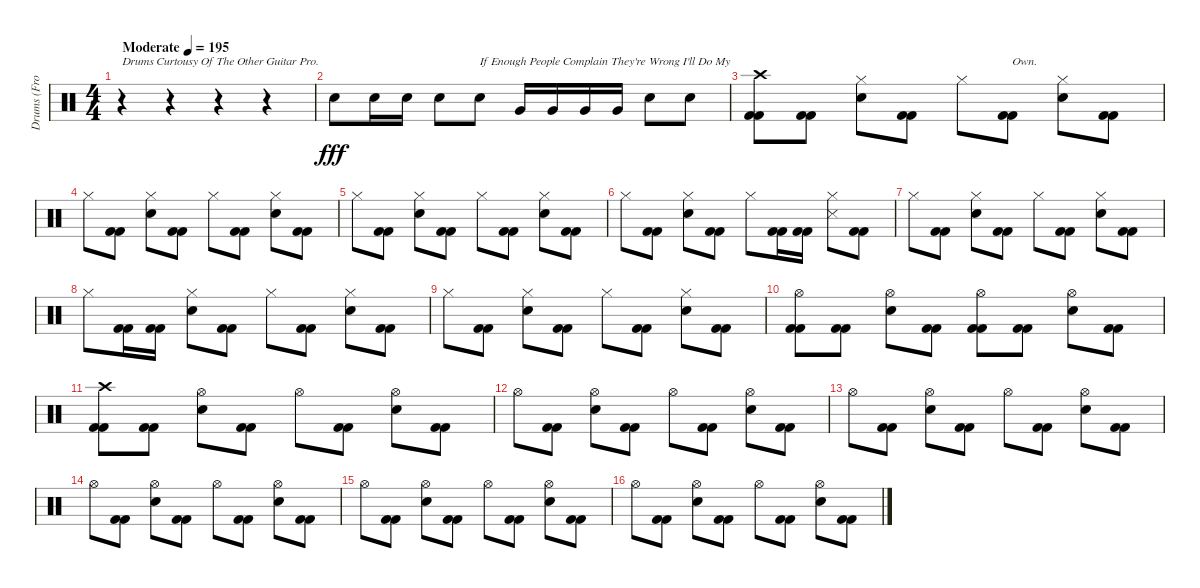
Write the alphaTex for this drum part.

\track ("Drums (From Other GP)" "Drums (Fro") {instrument percussion}
\staff {score}
\articulation defaults
\ts (4 4)
\tempo (195 "Moderate")
\clef neutral
\ks c
r.4{txt "Drums Curtousy Of The Other Guitar Pro." dy fff} r.4 r.4 r.4 |
"Electric Snare (hit)".8 "Electric Snare (hit)".16 "Electric Snare (hit)".16 "Electric Snare (hit)".8 "Electric Snare (hit)".8{txt "If Enough People Complain They're Wrong I'll Do My"} "Very Low Tom (hit)".16 "Very Low Tom (hit)".16 "Very Low Tom (hit)".16 "Very Low Tom (hit)".16 "Electric Snare (hit)".8 "Electric Snare (hit)".8 |
("Crash high (hit)" "Kick (hit) 2" "Kick (hit) 2").8 ("Kick (hit) 2" "Kick (hit) 2").8 ("Hi-Hat (closed)" "Electric Snare (hit)").8 ("Kick (hit) 2" "Kick (hit) 2").8 "Hi-Hat (closed)".8 ("Kick (hit) 2" "Kick (hit) 2").8{txt "Own."} ("Hi-Hat (closed)" "Electric Snare (hit)").8 ("Kick (hit) 2" "Kick (hit) 2").8 |
"Hi-Hat (closed)".8 ("Kick (hit) 2" "Kick (hit) 2").8 ("Hi-Hat (closed)" "Electric Snare (hit)").8 ("Kick (hit) 2" "Kick (hit) 2").8 "Hi-Hat (closed)".8 ("Kick (hit) 2" "Kick (hit) 2").8 ("Hi-Hat (closed)" "Electric Snare (hit)").8 ("Kick (hit) 2" "Kick (hit) 2").8 |
"Hi-Hat (closed)".8 ("Kick (hit) 2" "Kick (hit) 2").8 ("Hi-Hat (closed)" "Electric Snare (hit)").8 ("Kick (hit) 2" "Kick (hit) 2").8 "Hi-Hat (closed)".8 ("Kick (hit) 2" "Kick (hit) 2").8 ("Hi-Hat (closed)" "Electric Snare (hit)").8 ("Kick (hit) 2" "Kick (hit) 2").8 |
"Hi-Hat (closed)".8 ("Kick (hit) 2" "Kick (hit) 2").8 ("Hi-Hat (closed)" "Electric Snare (hit)").8 ("Kick (hit) 2" "Kick (hit) 2").8 "Hi-Hat (closed)".8 ("Kick (hit) 2" "Kick (hit) 2").16 ("Kick (hit) 2" "Kick (hit) 2").16 ("Hi-Hat (closed)" "Snare (side stick) 3").8 ("Kick (hit) 2" "Kick (hit) 2").8 |
"Hi-Hat (closed)".8 ("Kick (hit) 2" "Kick (hit) 2").8 ("Hi-Hat (closed)" "Electric Snare (hit)").8 ("Kick (hit) 2" "Kick (hit) 2").8 "Hi-Hat (closed)".8 ("Kick (hit) 2" "Kick (hit) 2").8 ("Hi-Hat (closed)" "Electric Snare (hit)").8 ("Kick (hit) 2" "Kick (hit) 2").8 |
"Hi-Hat (closed)".8 ("Kick (hit) 2" "Kick (hit) 2").16 ("Kick (hit) 2" "Kick (hit) 2").16 ("Hi-Hat (closed)" "Electric Snare (hit)").8 ("Kick (hit) 2" "Kick (hit) 2").8 "Hi-Hat (closed)".8 ("Kick (hit) 2" "Kick (hit) 2").8 ("Hi-Hat (closed)" "Electric Snare (hit)").8 ("Kick (hit) 2" "Kick (hit) 2").8 |
"Hi-Hat (closed)".8 ("Kick (hit) 2" "Kick (hit) 2").8 ("Hi-Hat (closed)" "Electric Snare (hit)").8 ("Kick (hit) 2" "Kick (hit) 2").8 "Hi-Hat (closed)".8 ("Kick (hit) 2" "Kick (hit) 2").8 ("Hi-Hat (closed)" "Electric Snare (hit)").8 ("Kick (hit) 2" "Kick (hit) 2").8 |
("Hi-Hat (open)" "Kick (hit) 2" "Kick (hit) 2").8 ("Kick (hit) 2" "Kick (hit) 2").8 ("Hi-Hat (open)" "Electric Snare (hit)").8 ("Kick (hit) 2" "Kick (hit) 2").8 ("Hi-Hat (open)" "Kick (hit) 2" "Kick (hit) 2").8 ("Kick (hit) 2" "Kick (hit) 2").8 ("Hi-Hat (open)" "Electric Snare (hit)").8 ("Kick (hit) 2" "Kick (hit) 2").8 |
("Crash high (hit)" "Kick (hit) 2" "Kick (hit) 2").8 ("Kick (hit) 2" "Kick (hit) 2").8 ("Hi-Hat (open)" "Electric Snare (hit)").8 ("Kick (hit) 2" "Kick (hit) 2").8 "Hi-Hat (open)".8 ("Kick (hit) 2" "Kick (hit) 2").8 ("Hi-Hat (open)" "Electric Snare (hit)").8 ("Kick (hit) 2" "Kick (hit) 2").8 |
"Hi-Hat (open)".8 ("Kick (hit) 2" "Kick (hit) 2").8 ("Hi-Hat (open)" "Electric Snare (hit)").8 ("Kick (hit) 2" "Kick (hit) 2").8 "Hi-Hat (open)".8 ("Kick (hit) 2" "Kick (hit) 2").8 ("Hi-Hat (open)" "Electric Snare (hit)").8 ("Kick (hit) 2" "Kick (hit) 2").8 |
"Hi-Hat (open)".8 ("Kick (hit) 2" "Kick (hit) 2").8 ("Hi-Hat (open)" "Electric Snare (hit)").8 ("Kick (hit) 2" "Kick (hit) 2").8 "Hi-Hat (open)".8 ("Kick (hit) 2" "Kick (hit) 2").8 ("Hi-Hat (open)" "Electric Snare (hit)").8 ("Kick (hit) 2" "Kick (hit) 2").8 |
"Hi-Hat (open)".8 ("Kick (hit) 2" "Kick (hit) 2").8 ("Hi-Hat (open)" "Electric Snare (hit)").8 ("Kick (hit) 2" "Kick (hit) 2").8 "Hi-Hat (open)".8 ("Kick (hit) 2" "Kick (hit) 2").8 ("Hi-Hat (open)" "Electric Snare (hit)").8 ("Kick (hit) 2" "Kick (hit) 2").8 |
"Hi-Hat (open)".8 ("Kick (hit) 2" "Kick (hit) 2").8 ("Hi-Hat (open)" "Electric Snare (hit)").8 ("Kick (hit) 2" "Kick (hit) 2").8 "Hi-Hat (open)".8 ("Kick (hit) 2" "Kick (hit) 2").8 ("Hi-Hat (open)" "Electric Snare (hit)").8 ("Kick (hit) 2" "Kick (hit) 2").8 |
"Hi-Hat (open)".8 ("Kick (hit) 2" "Kick (hit) 2").8 ("Hi-Hat (open)" "Electric Snare (hit)").8 ("Kick (hit) 2" "Kick (hit) 2").8 "Hi-Hat (open)".8 ("Kick (hit) 2" "Kick (hit) 2").8 ("Hi-Hat (open)" "Electric Snare (hit)").8 ("Kick (hit) 2" "Kick (hit) 2").8
